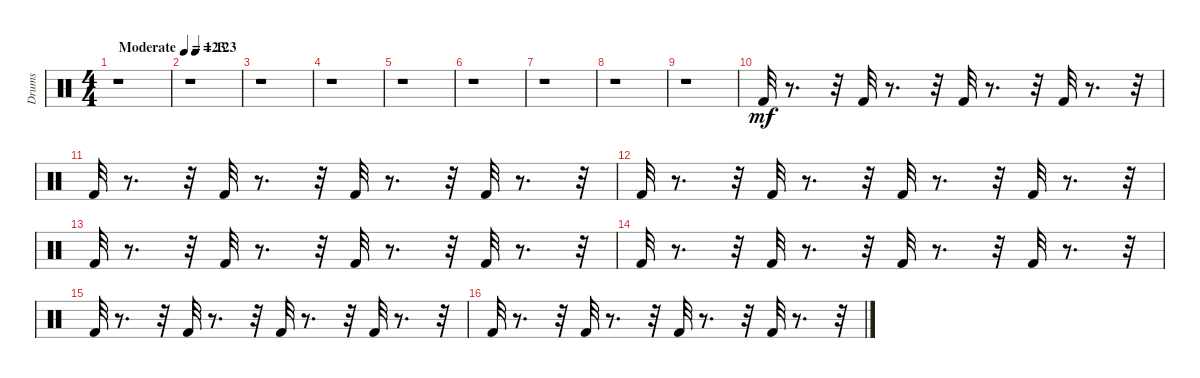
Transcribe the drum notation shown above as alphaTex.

\track ("Drums" "Drums") {instrument percussion}
\staff {score}
\articulation defaults
\ts (4 4)
\tempo (123 "Moderate")
\clef neutral
\ks c
r.1{dy mf} |
\tempo (123 0.125)
r.1 |
r.1 |
r.1 |
r.1 |
r.1 |
r.1 |
r.1 |
r.1 |
"Kick (hit) 2".32 r.8{d} r.32 "Kick (hit) 2".32 r.8{d} r.32 "Kick (hit) 2".32 r.8{d} r.32 "Kick (hit) 2".32 r.8{d} r.32 |
"Kick (hit) 2".32 r.8{d} r.32 "Kick (hit) 2".32 r.8{d} r.32 "Kick (hit) 2".32 r.8{d} r.32 "Kick (hit) 2".32 r.8{d} r.32 |
"Kick (hit) 2".32 r.8{d} r.32 "Kick (hit) 2".32 r.8{d} r.32 "Kick (hit) 2".32 r.8{d} r.32 "Kick (hit) 2".32 r.8{d} r.32 |
"Kick (hit) 2".32 r.8{d} r.32 "Kick (hit) 2".32 r.8{d} r.32 "Kick (hit) 2".32 r.8{d} r.32 "Kick (hit) 2".32 r.8{d} r.32 |
"Kick (hit) 2".32 r.8{d} r.32 "Kick (hit) 2".32 r.8{d} r.32 "Kick (hit) 2".32 r.8{d} r.32 "Kick (hit) 2".32 r.8{d} r.32 |
"Kick (hit) 2".32 r.8{d} r.32 "Kick (hit) 2".32 r.8{d} r.32 "Kick (hit) 2".32 r.8{d} r.32 "Kick (hit) 2".32 r.8{d} r.32 |
"Kick (hit) 2".32 r.8{d} r.32 "Kick (hit) 2".32 r.8{d} r.32 "Kick (hit) 2".32 r.8{d} r.32 "Kick (hit) 2".32 r.8{d} r.32
